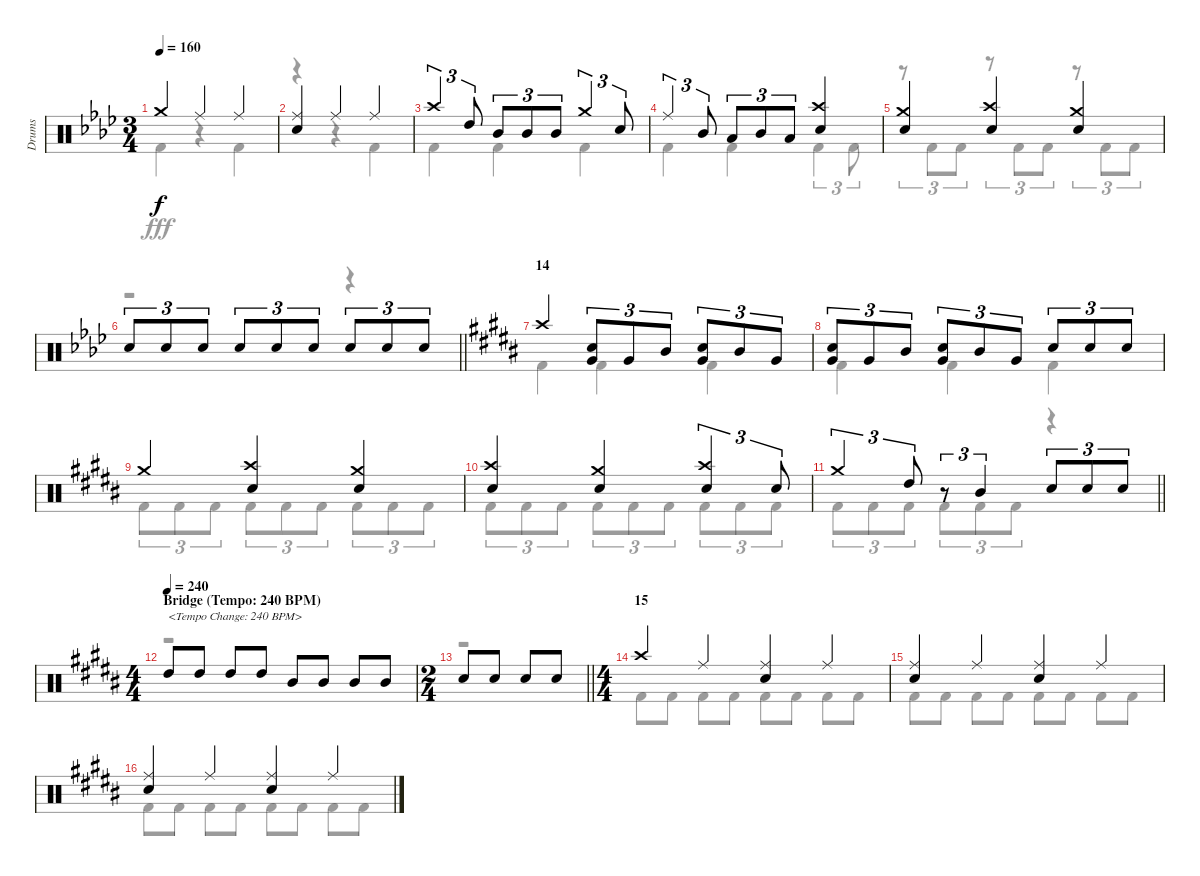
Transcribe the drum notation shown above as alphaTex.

\track ("Drums" "Drums") {instrument percussion}
\staff {score}
\articulation defaults
\voice
\ts (3 4)
\tempo 160
\clef neutral
\ks ab "Crash medium (hit)".4{dy f} "Ride (middle)".4 "Ride (middle)".4
|
("Ride (middle)" "Snare (hit) 2").4 "Ride (middle)".4 "Ride (middle)".4 |
"Crash high (hit)".4{tu (3 2)} "High Tom (hit)".8{tu (3 2)} "Mid Tom (hit)".8{tu (3 2)} "Mid Tom (hit)".8{tu (3 2)} "Mid Tom (hit)".8{tu (3 2)} "Crash medium (hit)".4{tu (3 2)} "Snare (hit) 2".8{tu (3 2)} |
"Ride (middle)".4{tu (3 2)} "Mid Tom (hit)".8{tu (3 2)} "Low Tom (hit)".8{tu (3 2)} "Mid Tom (hit)".8{tu (3 2)} "Low Tom (hit)".8{tu (3 2)} ("Crash high (hit)" "Snare (hit) 2").4 |
("Crash medium (hit)" "Snare (hit) 2").4 ("Crash high (hit)" "Snare (hit) 2").4 ("Crash medium (hit)" "Snare (hit) 2").4 |
\barLineRight lightlight "Snare (hit) 2".8{tu (3 2)} "Snare (hit) 2".8{tu (3 2)} "Snare (hit) 2".8{tu (3 2)} "Snare (hit) 2".8{tu (3 2)} "Snare (hit) 2".8{tu (3 2)} "Snare (hit) 2".8{tu (3 2)} "Snare (hit) 2".8{tu (3 2)} "Snare (hit) 2".8{tu (3 2)} "Snare (hit) 2".8{tu (3 2)}
|
\section ("" "14")
\ks b "Crash high (hit)".4
("Snare (hit) 2" "Very Low Tom (hit)").8{tu (3 2)} "Very Low Tom (hit)".8{tu (3 2)} "Mid Tom (hit)".8{tu (3 2)} ("Snare (hit) 2" "Very Low Tom (hit)").8{tu (3 2)} "Mid Tom (hit)".8{tu (3 2)} "Very Low Tom (hit)".8{tu (3 2)} |
("Snare (hit) 2" "Very Low Tom (hit)").8{tu (3 2)} "Very Low Tom (hit)".8{tu (3 2)} "Mid Tom (hit)".8{tu (3 2)} ("Snare (hit) 2" "Very Low Tom (hit)").8{tu (3 2)} "Mid Tom (hit)".8{tu (3 2)} "Very Low Tom (hit)".8{tu (3 2)} "Snare (hit) 2".8{tu (3 2)} "Snare (hit) 2".8{tu (3 2)} "Snare (hit) 2".8{tu (3 2)} |
"Crash medium (hit)".4 ("Crash high (hit)" "Snare (hit) 2").4 ("Crash medium (hit)" "Snare (hit) 2").4 |
("Crash high (hit)" "Snare (hit) 2").4 ("Crash medium (hit)" "Snare (hit) 2").4 ("Crash high (hit)" "Snare (hit) 2").4{tu (3 2)} "Snare (hit) 2".8{tu (3 2)} |
\barLineRight lightlight "Crash medium (hit)".4{tu (3 2)} "High Tom (hit)".8{tu (3 2)}
r.8{tu (3 2)} "Mid Tom (hit)".4{tu (3 2)} "Snare (hit) 2".8{tu (3 2)} "Snare (hit) 2".8{tu (3 2)} "Snare (hit) 2".8{tu (3 2)} |
\ts (4 4)
\section ("" "Bridge (Tempo: 240 BPM)")
\tempo (240)
"High Tom (hit)".8{txt "<Tempo Change: 240 BPM>"} "High Tom (hit)".8 "High Tom (hit)".8 "High Tom (hit)".8 "Mid Tom (hit)".8 "Mid Tom (hit)".8 "Mid Tom (hit)".8 "Mid Tom (hit)".8 |
\ts (2 4)
\barLineRight lightlight "Snare (hit) 2".8 "Snare (hit) 2".8 "Snare (hit) 2".8 "Snare (hit) 2".8
|
\ts (4 4)
\section ("" "15")
"Crash high (hit)".4 "Ride (middle)".4 ("Ride (middle)" "Snare (hit) 2").4 "Ride (middle)".4 |
("Ride (middle)" "Snare (hit) 2").4 "Ride (middle)".4 ("Ride (middle)" "Snare (hit) 2").4 "Ride (middle)".4 |
("Ride (middle)" "Snare (hit) 2").4 "Ride (middle)".4 ("Ride (middle)" "Snare (hit) 2").4 "Ride (middle)".4
\voice
\clef neutral
\ottava regular
\simile none
\ks ab "Kick (hit) 2".4{dy fff}
r.4 "Kick (hit) 2".4 |
r.4 r.4 "Kick (hit) 2".4 |
"Kick (hit) 2".4 "Kick (hit) 2".4 "Kick (hit) 2".4 |
"Kick (hit) 2".4 "Kick (hit) 2".4 "Kick (hit) 2".4{tu (3 2)} "Kick (hit) 2".8{tu (3 2)} |
r.8{tu (3 2)} "Kick (hit) 2".8{tu (3 2)} "Kick (hit) 2".8{tu (3 2)} r.8{tu (3 2)} "Kick (hit) 2".8{tu (3 2)} "Kick (hit) 2".8{tu (3 2)} r.8{tu (3 2)} "Kick (hit) 2".8{tu (3 2)} "Kick (hit) 2".8{tu (3 2)} |
\barLineRight lightlight
r.2 r.4 |
\ks b "Kick (hit) 2".4 "Kick (hit) 2".4 "Kick (hit) 2".4
|
"Kick (hit) 2".4 "Kick (hit) 2".4 "Kick (hit) 2".4 |
"Kick (hit) 2".8{tu (3 2)} "Kick (hit) 2".8{tu (3 2)} "Kick (hit) 2".8{tu (3 2)} "Kick (hit) 2".8{tu (3 2)} "Kick (hit) 2".8{tu (3 2)} "Kick (hit) 2".8{tu (3 2)} "Kick (hit) 2".8{tu (3 2)} "Kick (hit) 2".8{tu (3 2)} "Kick (hit) 2".8{tu (3 2)} |
"Kick (hit) 2".8{tu (3 2)} "Kick (hit) 2".8{tu (3 2)} "Kick (hit) 2".8{tu (3 2)} "Kick (hit) 2".8{tu (3 2)} "Kick (hit) 2".8{tu (3 2)} "Kick (hit) 2".8{tu (3 2)} "Kick (hit) 2".8{tu (3 2)} "Kick (hit) 2".8{tu (3 2)} "Kick (hit) 2".8{tu (3 2)} |
\barLineRight lightlight "Kick (hit) 2".8{tu (3 2)} "Kick (hit) 2".8{tu (3 2)} "Kick (hit) 2".8{tu (3 2)} "Kick (hit) 2".8{tu (3 2)} "Kick (hit) 2".8{tu (3 2)} "Kick (hit) 2".8{tu (3 2)}
r.4 |
r.1 |
\barLineRight lightlight
r.2 |
"Kick (hit) 2".8 "Kick (hit) 2".8 "Kick (hit) 2".8 "Kick (hit) 2".8 "Kick (hit) 2".8 "Kick (hit) 2".8 "Kick (hit) 2".8 "Kick (hit) 2".8 |
"Kick (hit) 2".8 "Kick (hit) 2".8 "Kick (hit) 2".8 "Kick (hit) 2".8 "Kick (hit) 2".8 "Kick (hit) 2".8 "Kick (hit) 2".8 "Kick (hit) 2".8 |
"Kick (hit) 2".8 "Kick (hit) 2".8 "Kick (hit) 2".8 "Kick (hit) 2".8 "Kick (hit) 2".8 "Kick (hit) 2".8 "Kick (hit) 2".8 "Kick (hit) 2".8
